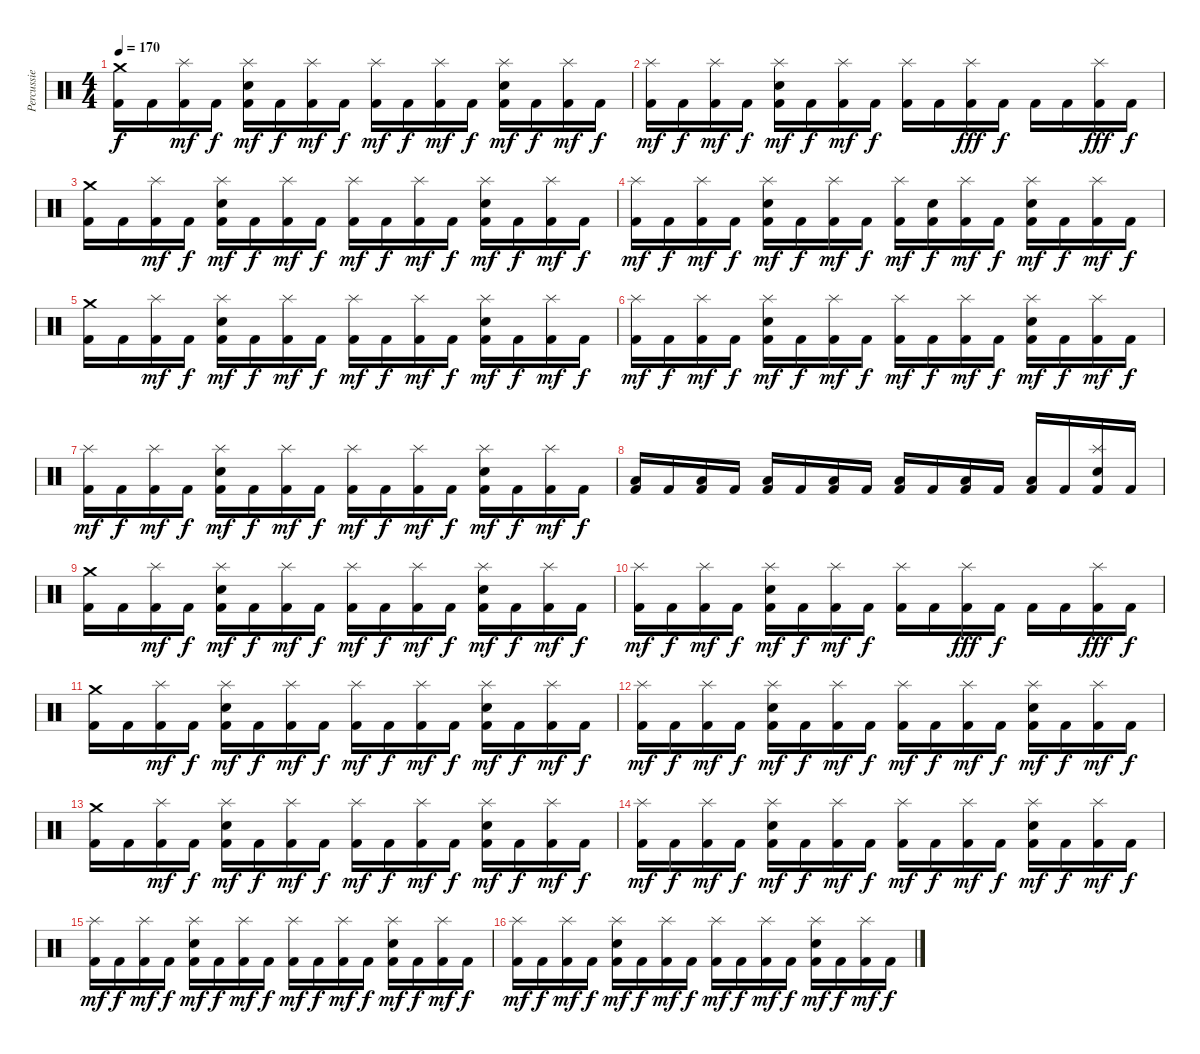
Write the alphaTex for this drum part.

\track ("Percussie" "Percussie") {instrument percussion}
\staff {score}
\articulation defaults
\ts (4 4)
\tempo 170
\clef neutral
\ks c
("Crash medium (hit)" "Kick (hit) 2").16{dy f} "Kick (hit) 2".16 ("Splash (hit)" "Kick (hit) 2").16{dy mf} "Kick (hit) 2".16{dy f} ("Splash (hit)" "Electric Snare (hit)" "Kick (hit) 2").16{dy mf} "Kick (hit) 2".16{dy f} ("Splash (hit)" "Kick (hit) 2").16{dy mf} "Kick (hit) 2".16{dy f} ("Splash (hit)" "Kick (hit) 2").16{dy mf} "Kick (hit) 2".16{dy f} ("Splash (hit)" "Kick (hit) 2").16{dy mf} "Kick (hit) 2".16{dy f} ("Splash (hit)" "Electric Snare (hit)" "Kick (hit) 2").16{dy mf} "Kick (hit) 2".16{dy f} ("Splash (hit)" "Kick (hit) 2").16{dy mf} "Kick (hit) 2".16{dy f} |
("Splash (hit)" "Kick (hit) 2").16{dy mf} "Kick (hit) 2".16{dy f} ("Splash (hit)" "Kick (hit) 2").16{dy mf} "Kick (hit) 2".16{dy f} ("Splash (hit)" "Electric Snare (hit)" "Kick (hit) 2").16{dy mf} "Kick (hit) 2".16{dy f} ("Splash (hit)" "Kick (hit) 2").16{dy mf} "Kick (hit) 2".16{dy f} ("Splash (hit)" "Kick (hit) 2").16 "Kick (hit) 2".16 ("Splash (hit)" "Kick (hit) 2").16{dy fff} "Kick (hit) 2".16{dy f} "Kick (hit) 2".16 "Kick (hit) 2".16 ("Splash (hit)" "Kick (hit) 2").16{dy fff} "Kick (hit) 2".16{dy f} |
("Crash medium (hit)" "Kick (hit) 2").16 "Kick (hit) 2".16 ("Splash (hit)" "Kick (hit) 2").16{dy mf} "Kick (hit) 2".16{dy f} ("Splash (hit)" "Electric Snare (hit)" "Kick (hit) 2").16{dy mf} "Kick (hit) 2".16{dy f} ("Splash (hit)" "Kick (hit) 2").16{dy mf} "Kick (hit) 2".16{dy f} ("Splash (hit)" "Kick (hit) 2").16{dy mf} "Kick (hit) 2".16{dy f} ("Splash (hit)" "Kick (hit) 2").16{dy mf} "Kick (hit) 2".16{dy f} ("Splash (hit)" "Electric Snare (hit)" "Kick (hit) 2").16{dy mf} "Kick (hit) 2".16{dy f} ("Splash (hit)" "Kick (hit) 2").16{dy mf} "Kick (hit) 2".16{dy f} |
("Splash (hit)" "Kick (hit) 2").16{dy mf} "Kick (hit) 2".16{dy f} ("Splash (hit)" "Kick (hit) 2").16{dy mf} "Kick (hit) 2".16{dy f} ("Splash (hit)" "Electric Snare (hit)" "Kick (hit) 2").16{dy mf} "Kick (hit) 2".16{dy f} ("Splash (hit)" "Kick (hit) 2").16{dy mf} "Kick (hit) 2".16{dy f} ("Splash (hit)" "Kick (hit) 2").16{dy mf} ("Electric Snare (hit)" "Kick (hit) 2").16{dy f} ("Splash (hit)" "Kick (hit) 2").16{dy mf} "Kick (hit) 2".16{dy f} ("Splash (hit)" "Electric Snare (hit)" "Kick (hit) 2").16{dy mf} "Kick (hit) 2".16{dy f} ("Splash (hit)" "Kick (hit) 2").16{dy mf} "Kick (hit) 2".16{dy f} |
("Crash medium (hit)" "Kick (hit) 2").16 "Kick (hit) 2".16 ("Splash (hit)" "Kick (hit) 2").16{dy mf} "Kick (hit) 2".16{dy f} ("Splash (hit)" "Electric Snare (hit)" "Kick (hit) 2").16{dy mf} "Kick (hit) 2".16{dy f} ("Splash (hit)" "Kick (hit) 2").16{dy mf} "Kick (hit) 2".16{dy f} ("Splash (hit)" "Kick (hit) 2").16{dy mf} "Kick (hit) 2".16{dy f} ("Splash (hit)" "Kick (hit) 2").16{dy mf} "Kick (hit) 2".16{dy f} ("Splash (hit)" "Electric Snare (hit)" "Kick (hit) 2").16{dy mf} "Kick (hit) 2".16{dy f} ("Splash (hit)" "Kick (hit) 2").16{dy mf} "Kick (hit) 2".16{dy f} |
("Splash (hit)" "Kick (hit) 2").16{dy mf} "Kick (hit) 2".16{dy f} ("Splash (hit)" "Kick (hit) 2").16{dy mf} "Kick (hit) 2".16{dy f} ("Splash (hit)" "Electric Snare (hit)" "Kick (hit) 2").16{dy mf} "Kick (hit) 2".16{dy f} ("Splash (hit)" "Kick (hit) 2").16{dy mf} "Kick (hit) 2".16{dy f} ("Splash (hit)" "Kick (hit) 2").16{dy mf} "Kick (hit) 2".16{dy f} ("Splash (hit)" "Kick (hit) 2").16{dy mf} "Kick (hit) 2".16{dy f} ("Splash (hit)" "Electric Snare (hit)" "Kick (hit) 2").16{dy mf} "Kick (hit) 2".16{dy f} ("Splash (hit)" "Kick (hit) 2").16{dy mf} "Kick (hit) 2".16{dy f} |
("Splash (hit)" "Kick (hit) 2").16{dy mf} "Kick (hit) 2".16{dy f} ("Splash (hit)" "Kick (hit) 2").16{dy mf} "Kick (hit) 2".16{dy f} ("Splash (hit)" "Electric Snare (hit)" "Kick (hit) 2").16{dy mf} "Kick (hit) 2".16{dy f} ("Splash (hit)" "Kick (hit) 2").16{dy mf} "Kick (hit) 2".16{dy f} ("Splash (hit)" "Kick (hit) 2").16{dy mf} "Kick (hit) 2".16{dy f} ("Splash (hit)" "Kick (hit) 2").16{dy mf} "Kick (hit) 2".16{dy f} ("Splash (hit)" "Electric Snare (hit)" "Kick (hit) 2").16{dy mf} "Kick (hit) 2".16{dy f} ("Splash (hit)" "Kick (hit) 2").16{dy mf} "Kick (hit) 2".16{dy f} |
("Low Tom (hit)" "Kick (hit) 2").16 "Kick (hit) 2".16 ("Low Tom (hit)" "Kick (hit) 2").16 "Kick (hit) 2".16 ("Low Tom (hit)" "Kick (hit) 2").16 "Kick (hit) 2".16 ("Low Tom (hit)" "Kick (hit) 2").16 "Kick (hit) 2".16 ("Low Tom (hit)" "Kick (hit) 2").16 "Kick (hit) 2".16 ("Low Tom (hit)" "Kick (hit) 2").16 "Kick (hit) 2".16 ("Low Tom (hit)" "Kick (hit) 2").16 "Kick (hit) 2".16 ("Splash (hit)" "Electric Snare (hit)" "Kick (hit) 2").16 "Kick (hit) 2".16 |
("Crash medium (hit)" "Kick (hit) 2").16 "Kick (hit) 2".16 ("Splash (hit)" "Kick (hit) 2").16{dy mf} "Kick (hit) 2".16{dy f} ("Splash (hit)" "Electric Snare (hit)" "Kick (hit) 2").16{dy mf} "Kick (hit) 2".16{dy f} ("Splash (hit)" "Kick (hit) 2").16{dy mf} "Kick (hit) 2".16{dy f} ("Splash (hit)" "Kick (hit) 2").16{dy mf} "Kick (hit) 2".16{dy f} ("Splash (hit)" "Kick (hit) 2").16{dy mf} "Kick (hit) 2".16{dy f} ("Splash (hit)" "Electric Snare (hit)" "Kick (hit) 2").16{dy mf} "Kick (hit) 2".16{dy f} ("Splash (hit)" "Kick (hit) 2").16{dy mf} "Kick (hit) 2".16{dy f} |
("Splash (hit)" "Kick (hit) 2").16{dy mf} "Kick (hit) 2".16{dy f} ("Splash (hit)" "Kick (hit) 2").16{dy mf} "Kick (hit) 2".16{dy f} ("Splash (hit)" "Electric Snare (hit)" "Kick (hit) 2").16{dy mf} "Kick (hit) 2".16{dy f} ("Splash (hit)" "Kick (hit) 2").16{dy mf} "Kick (hit) 2".16{dy f} ("Splash (hit)" "Kick (hit) 2").16 "Kick (hit) 2".16 ("Splash (hit)" "Kick (hit) 2").16{dy fff} "Kick (hit) 2".16{dy f} "Kick (hit) 2".16 "Kick (hit) 2".16 ("Splash (hit)" "Kick (hit) 2").16{dy fff} "Kick (hit) 2".16{dy f} |
("Crash medium (hit)" "Kick (hit) 2").16 "Kick (hit) 2".16 ("Splash (hit)" "Kick (hit) 2").16{dy mf} "Kick (hit) 2".16{dy f} ("Splash (hit)" "Electric Snare (hit)" "Kick (hit) 2").16{dy mf} "Kick (hit) 2".16{dy f} ("Splash (hit)" "Kick (hit) 2").16{dy mf} "Kick (hit) 2".16{dy f} ("Splash (hit)" "Kick (hit) 2").16{dy mf} "Kick (hit) 2".16{dy f} ("Splash (hit)" "Kick (hit) 2").16{dy mf} "Kick (hit) 2".16{dy f} ("Splash (hit)" "Electric Snare (hit)" "Kick (hit) 2").16{dy mf} "Kick (hit) 2".16{dy f} ("Splash (hit)" "Kick (hit) 2").16{dy mf} "Kick (hit) 2".16{dy f} |
("Splash (hit)" "Kick (hit) 2").16{dy mf} "Kick (hit) 2".16{dy f} ("Splash (hit)" "Kick (hit) 2").16{dy mf} "Kick (hit) 2".16{dy f} ("Splash (hit)" "Electric Snare (hit)" "Kick (hit) 2").16{dy mf} "Kick (hit) 2".16{dy f} ("Splash (hit)" "Kick (hit) 2").16{dy mf} "Kick (hit) 2".16{dy f} ("Splash (hit)" "Kick (hit) 2").16{dy mf} "Kick (hit) 2".16{dy f} ("Splash (hit)" "Kick (hit) 2").16{dy mf} "Kick (hit) 2".16{dy f} ("Splash (hit)" "Electric Snare (hit)" "Kick (hit) 2").16{dy mf} "Kick (hit) 2".16{dy f} ("Splash (hit)" "Kick (hit) 2").16{dy mf} "Kick (hit) 2".16{dy f} |
("Crash medium (hit)" "Kick (hit) 2").16 "Kick (hit) 2".16 ("Splash (hit)" "Kick (hit) 2").16{dy mf} "Kick (hit) 2".16{dy f} ("Splash (hit)" "Electric Snare (hit)" "Kick (hit) 2").16{dy mf} "Kick (hit) 2".16{dy f} ("Splash (hit)" "Kick (hit) 2").16{dy mf} "Kick (hit) 2".16{dy f} ("Splash (hit)" "Kick (hit) 2").16{dy mf} "Kick (hit) 2".16{dy f} ("Splash (hit)" "Kick (hit) 2").16{dy mf} "Kick (hit) 2".16{dy f} ("Splash (hit)" "Electric Snare (hit)" "Kick (hit) 2").16{dy mf} "Kick (hit) 2".16{dy f} ("Splash (hit)" "Kick (hit) 2").16{dy mf} "Kick (hit) 2".16{dy f} |
("Splash (hit)" "Kick (hit) 2").16{dy mf} "Kick (hit) 2".16{dy f} ("Splash (hit)" "Kick (hit) 2").16{dy mf} "Kick (hit) 2".16{dy f} ("Splash (hit)" "Electric Snare (hit)" "Kick (hit) 2").16{dy mf} "Kick (hit) 2".16{dy f} ("Splash (hit)" "Kick (hit) 2").16{dy mf} "Kick (hit) 2".16{dy f} ("Splash (hit)" "Kick (hit) 2").16{dy mf} "Kick (hit) 2".16{dy f} ("Splash (hit)" "Kick (hit) 2").16{dy mf} "Kick (hit) 2".16{dy f} ("Splash (hit)" "Electric Snare (hit)" "Kick (hit) 2").16{dy mf} "Kick (hit) 2".16{dy f} ("Splash (hit)" "Kick (hit) 2").16{dy mf} "Kick (hit) 2".16{dy f} |
("Splash (hit)" "Kick (hit) 2").16{dy mf} "Kick (hit) 2".16{dy f} ("Splash (hit)" "Kick (hit) 2").16{dy mf} "Kick (hit) 2".16{dy f} ("Splash (hit)" "Electric Snare (hit)" "Kick (hit) 2").16{dy mf} "Kick (hit) 2".16{dy f} ("Splash (hit)" "Kick (hit) 2").16{dy mf} "Kick (hit) 2".16{dy f} ("Splash (hit)" "Kick (hit) 2").16{dy mf} "Kick (hit) 2".16{dy f} ("Splash (hit)" "Kick (hit) 2").16{dy mf} "Kick (hit) 2".16{dy f} ("Splash (hit)" "Electric Snare (hit)" "Kick (hit) 2").16{dy mf} "Kick (hit) 2".16{dy f} ("Splash (hit)" "Kick (hit) 2").16{dy mf} "Kick (hit) 2".16{dy f} |
("Splash (hit)" "Kick (hit) 2").16{dy mf} "Kick (hit) 2".16{dy f} ("Splash (hit)" "Kick (hit) 2").16{dy mf} "Kick (hit) 2".16{dy f} ("Splash (hit)" "Electric Snare (hit)" "Kick (hit) 2").16{dy mf} "Kick (hit) 2".16{dy f} ("Splash (hit)" "Kick (hit) 2").16{dy mf} "Kick (hit) 2".16{dy f} ("Splash (hit)" "Kick (hit) 2").16{dy mf} "Kick (hit) 2".16{dy f} ("Splash (hit)" "Kick (hit) 2").16{dy mf} "Kick (hit) 2".16{dy f} ("Splash (hit)" "Electric Snare (hit)" "Kick (hit) 2").16{dy mf} "Kick (hit) 2".16{dy f} ("Splash (hit)" "Kick (hit) 2").16{dy mf} "Kick (hit) 2".16{dy f}
